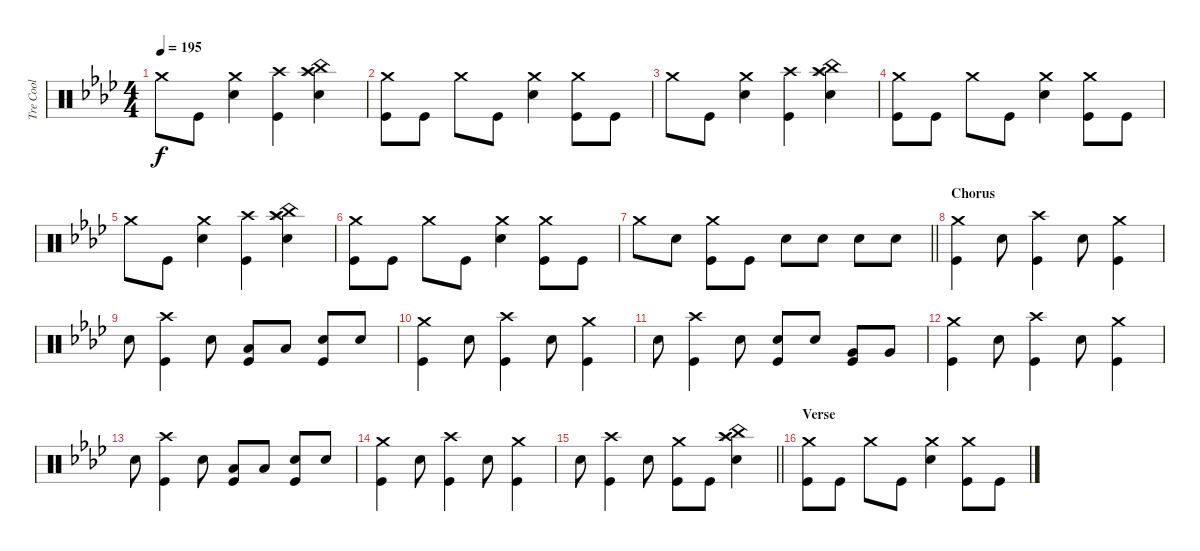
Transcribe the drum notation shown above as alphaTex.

\track ("Tre Cool" "Tre Cool") {instrument percussion}
\staff {score}
\articulation defaults
\ts (4 4)
\tempo 195
\clef neutral
\ks ab "Crash medium (hit)".8{dy f} "Kick (hit)".8
("Crash medium (hit)" "Electric Snare (hit)").4 ("Crash high (hit)" "Kick (hit)").4 ("China (hit)" "Splash (hit)" "Electric Snare (hit)" "Crash high (hit)").4 |
("Crash medium (hit)" "Kick (hit)").8 "Kick (hit)".8 "Crash medium (hit)".8 "Kick (hit)".8 ("Crash medium (hit)" "Electric Snare (hit)").4 ("Crash medium (hit)" "Kick (hit)").8 "Kick (hit)".8 |
"Crash medium (hit)".8 "Kick (hit)".8 ("Crash medium (hit)" "Electric Snare (hit)").4 ("Crash high (hit)" "Kick (hit)").4 ("China (hit)" "Splash (hit)" "Electric Snare (hit)" "Crash high (hit)").4 |
("Crash medium (hit)" "Kick (hit)").8 "Kick (hit)".8 "Crash medium (hit)".8 "Kick (hit)".8 ("Crash medium (hit)" "Electric Snare (hit)").4 ("Crash medium (hit)" "Kick (hit)").8 "Kick (hit)".8 |
"Crash medium (hit)".8 "Kick (hit)".8 ("Crash medium (hit)" "Electric Snare (hit)").4 ("Crash high (hit)" "Kick (hit)").4 ("China (hit)" "Splash (hit)" "Electric Snare (hit)" "Crash high (hit)").4 |
("Crash medium (hit)" "Kick (hit)").8 "Kick (hit)".8 "Crash medium (hit)".8 "Kick (hit)".8 ("Crash medium (hit)" "Electric Snare (hit)").4 ("Crash medium (hit)" "Kick (hit)").8 "Kick (hit)".8 |
\barLineRight lightlight "Crash medium (hit)".8 "Electric Snare (hit)".8
("Crash medium (hit)" "Kick (hit)").8 "Kick (hit)".8 "Electric Snare (hit)".8 "Electric Snare (hit)".8 "Electric Snare (hit)".8 "Electric Snare (hit)".8 |
\section ("" "Chorus")
("Crash medium (hit)" "Kick (hit)").4 "Electric Snare (hit)".8 ("Crash high (hit)" "Kick (hit)").4 "Electric Snare (hit)".8 ("Crash medium (hit)" "Kick (hit)").4 |
"Electric Snare (hit)".8 ("Crash high (hit)" "Kick (hit)").4 "Electric Snare (hit)".8 ("Low Tom (hit)" "Kick (hit)").8 "Low Tom (hit)".8 ("Electric Snare (hit)" "Kick (hit)").8 "Electric Snare (hit)".8 |
("Crash medium (hit)" "Kick (hit)").4 "Electric Snare (hit)".8 ("Crash high (hit)" "Kick (hit)").4 "Electric Snare (hit)".8 ("Crash medium (hit)" "Kick (hit)").4 |
"Electric Snare (hit)".8 ("Crash high (hit)" "Kick (hit)").4 "Electric Snare (hit)".8 ("Electric Snare (hit)" "Kick (hit)").8 "Electric Snare (hit)".8 ("Very Low Tom (hit)" "Kick (hit)").8 "Very Low Tom (hit)".8 |
("Crash medium (hit)" "Kick (hit)").4 "Electric Snare (hit)".8 ("Crash high (hit)" "Kick (hit)").4 "Electric Snare (hit)".8 ("Crash medium (hit)" "Kick (hit)").4 |
"Electric Snare (hit)".8 ("Crash high (hit)" "Kick (hit)").4 "Electric Snare (hit)".8 ("Low Tom (hit)" "Kick (hit)").8 "Low Tom (hit)".8 ("Electric Snare (hit)" "Kick (hit)").8 "Electric Snare (hit)".8 |
("Crash medium (hit)" "Kick (hit)").4 "Electric Snare (hit)".8 ("Crash high (hit)" "Kick (hit)").4 "Electric Snare (hit)".8 ("Crash medium (hit)" "Kick (hit)").4 |
\barLineRight lightlight "Electric Snare (hit)".8
("Crash high (hit)" "Kick (hit)").4 "Electric Snare (hit)".8 ("Crash medium (hit)" "Kick (hit)").8 "Kick (hit)".8 ("China (hit)" "Splash (hit)" "Electric Snare (hit)" "Crash high (hit)").4 |
\section ("" "Verse")
("Crash medium (hit)" "Kick (hit)").8 "Kick (hit)".8 "Crash medium (hit)".8 "Kick (hit)".8 ("Crash medium (hit)" "Electric Snare (hit)").4 ("Crash medium (hit)" "Kick (hit)").8 "Kick (hit)".8
